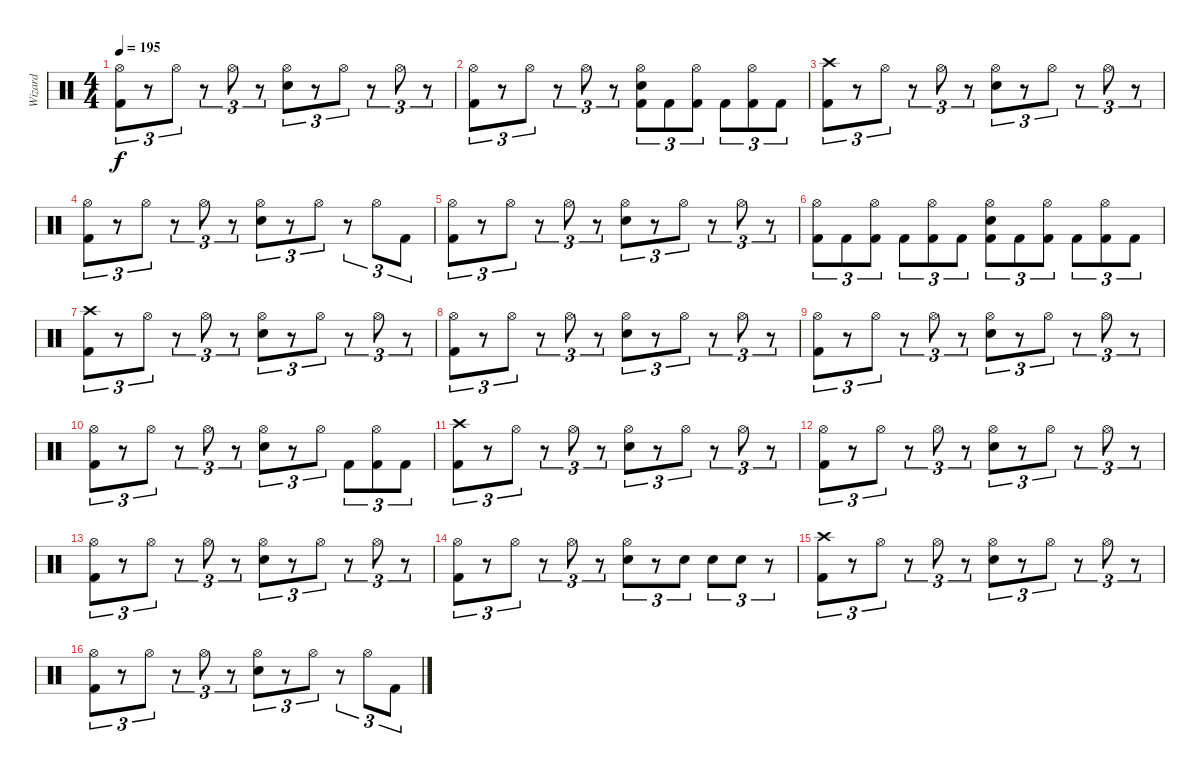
\track ("Wizard" "Wizard") {instrument percussion}
\staff {score}
\articulation defaults
\ts (4 4)
\tempo 195
\clef neutral
\ks c
("Hi-Hat (open)" "Kick (hit) 2").8{tu (3 2) dy f} r.8{tu (3 2)} "Hi-Hat (open)".8{tu (3 2)} r.8{tu (3 2)} "Hi-Hat (open)".8{tu (3 2)} r.8{tu (3 2)} ("Hi-Hat (open)" "Snare (hit) 2").8{tu (3 2)} r.8{tu (3 2)} "Hi-Hat (open)".8{tu (3 2)} r.8{tu (3 2)} "Hi-Hat (open)".8{tu (3 2)} r.8{tu (3 2)} |
("Hi-Hat (open)" "Kick (hit) 2").8{tu (3 2)} r.8{tu (3 2)} "Hi-Hat (open)".8{tu (3 2)} r.8{tu (3 2)} "Hi-Hat (open)".8{tu (3 2)} r.8{tu (3 2)} ("Hi-Hat (open)" "Snare (hit) 2" "Kick (hit) 2").8{tu (3 2)} "Kick (hit) 2".8{tu (3 2)} ("Hi-Hat (open)" "Kick (hit) 2").8{tu (3 2)} "Kick (hit) 2".8{tu (3 2)} ("Hi-Hat (open)" "Kick (hit) 2").8{tu (3 2)} "Kick (hit) 2".8{tu (3 2)} |
("Crash high (hit)" "Kick (hit) 2").8{tu (3 2)} r.8{tu (3 2)} "Hi-Hat (open)".8{tu (3 2)} r.8{tu (3 2)} "Hi-Hat (open)".8{tu (3 2)} r.8{tu (3 2)} ("Hi-Hat (open)" "Snare (hit) 2").8{tu (3 2)} r.8{tu (3 2)} "Hi-Hat (open)".8{tu (3 2)} r.8{tu (3 2)} "Hi-Hat (open)".8{tu (3 2)} r.8{tu (3 2)} |
("Hi-Hat (open)" "Kick (hit) 2").8{tu (3 2)} r.8{tu (3 2)} "Hi-Hat (open)".8{tu (3 2)} r.8{tu (3 2)} "Hi-Hat (open)".8{tu (3 2)} r.8{tu (3 2)} ("Hi-Hat (open)" "Snare (hit) 2").8{tu (3 2)} r.8{tu (3 2)} "Hi-Hat (open)".8{tu (3 2)} r.8{tu (3 2)} "Hi-Hat (open)".8{tu (3 2)} "Kick (hit) 2".8{tu (3 2)} |
("Hi-Hat (open)" "Kick (hit) 2").8{tu (3 2)} r.8{tu (3 2)} "Hi-Hat (open)".8{tu (3 2)} r.8{tu (3 2)} "Hi-Hat (open)".8{tu (3 2)} r.8{tu (3 2)} ("Hi-Hat (open)" "Snare (hit) 2").8{tu (3 2)} r.8{tu (3 2)} "Hi-Hat (open)".8{tu (3 2)} r.8{tu (3 2)} "Hi-Hat (open)".8{tu (3 2)} r.8{tu (3 2)} |
("Hi-Hat (open)" "Kick (hit) 2").8{tu (3 2)} "Kick (hit) 2".8{tu (3 2)} ("Hi-Hat (open)" "Kick (hit) 2").8{tu (3 2)} "Kick (hit) 2".8{tu (3 2)} ("Hi-Hat (open)" "Kick (hit) 2").8{tu (3 2)} "Kick (hit) 2".8{tu (3 2)} ("Hi-Hat (open)" "Snare (hit) 2" "Kick (hit) 2").8{tu (3 2)} "Kick (hit) 2".8{tu (3 2)} ("Hi-Hat (open)" "Kick (hit) 2").8{tu (3 2)} "Kick (hit) 2".8{tu (3 2)} ("Hi-Hat (open)" "Kick (hit) 2").8{tu (3 2)} "Kick (hit) 2".8{tu (3 2)} |
("Crash high (hit)" "Kick (hit) 2").8{tu (3 2)} r.8{tu (3 2)} "Hi-Hat (open)".8{tu (3 2)} r.8{tu (3 2)} "Hi-Hat (open)".8{tu (3 2)} r.8{tu (3 2)} ("Hi-Hat (open)" "Snare (hit) 2").8{tu (3 2)} r.8{tu (3 2)} "Hi-Hat (open)".8{tu (3 2)} r.8{tu (3 2)} "Hi-Hat (open)".8{tu (3 2)} r.8{tu (3 2)} |
("Hi-Hat (open)" "Kick (hit) 2").8{tu (3 2)} r.8{tu (3 2)} "Hi-Hat (open)".8{tu (3 2)} r.8{tu (3 2)} "Hi-Hat (open)".8{tu (3 2)} r.8{tu (3 2)} ("Hi-Hat (open)" "Snare (hit) 2").8{tu (3 2)} r.8{tu (3 2)} "Hi-Hat (open)".8{tu (3 2)} r.8{tu (3 2)} "Hi-Hat (open)".8{tu (3 2)} r.8{tu (3 2)} |
("Hi-Hat (open)" "Kick (hit) 2").8{tu (3 2)} r.8{tu (3 2)} "Hi-Hat (open)".8{tu (3 2)} r.8{tu (3 2)} "Hi-Hat (open)".8{tu (3 2)} r.8{tu (3 2)} ("Hi-Hat (open)" "Snare (hit) 2").8{tu (3 2)} r.8{tu (3 2)} "Hi-Hat (open)".8{tu (3 2)} r.8{tu (3 2)} "Hi-Hat (open)".8{tu (3 2)} r.8{tu (3 2)} |
("Hi-Hat (open)" "Kick (hit) 2").8{tu (3 2)} r.8{tu (3 2)} "Hi-Hat (open)".8{tu (3 2)} r.8{tu (3 2)} "Hi-Hat (open)".8{tu (3 2)} r.8{tu (3 2)} ("Hi-Hat (open)" "Snare (hit) 2").8{tu (3 2)} r.8{tu (3 2)} "Hi-Hat (open)".8{tu (3 2)} "Kick (hit) 2".8{tu (3 2)} ("Hi-Hat (open)" "Kick (hit) 2").8{tu (3 2)} "Kick (hit) 2".8{tu (3 2)} |
("Crash high (hit)" "Kick (hit) 2").8{tu (3 2)} r.8{tu (3 2)} "Hi-Hat (open)".8{tu (3 2)} r.8{tu (3 2)} "Hi-Hat (open)".8{tu (3 2)} r.8{tu (3 2)} ("Hi-Hat (open)" "Snare (hit) 2").8{tu (3 2)} r.8{tu (3 2)} "Hi-Hat (open)".8{tu (3 2)} r.8{tu (3 2)} "Hi-Hat (open)".8{tu (3 2)} r.8{tu (3 2)} |
("Hi-Hat (open)" "Kick (hit) 2").8{tu (3 2)} r.8{tu (3 2)} "Hi-Hat (open)".8{tu (3 2)} r.8{tu (3 2)} "Hi-Hat (open)".8{tu (3 2)} r.8{tu (3 2)} ("Hi-Hat (open)" "Snare (hit) 2").8{tu (3 2)} r.8{tu (3 2)} "Hi-Hat (open)".8{tu (3 2)} r.8{tu (3 2)} "Hi-Hat (open)".8{tu (3 2)} r.8{tu (3 2)} |
("Hi-Hat (open)" "Kick (hit) 2").8{tu (3 2)} r.8{tu (3 2)} "Hi-Hat (open)".8{tu (3 2)} r.8{tu (3 2)} "Hi-Hat (open)".8{tu (3 2)} r.8{tu (3 2)} ("Hi-Hat (open)" "Snare (hit) 2").8{tu (3 2)} r.8{tu (3 2)} "Hi-Hat (open)".8{tu (3 2)} r.8{tu (3 2)} "Hi-Hat (open)".8{tu (3 2)} r.8{tu (3 2)} |
("Hi-Hat (open)" "Kick (hit) 2").8{tu (3 2)} r.8{tu (3 2)} "Hi-Hat (open)".8{tu (3 2)} r.8{tu (3 2)} "Hi-Hat (open)".8{tu (3 2)} r.8{tu (3 2)} ("Hi-Hat (open)" "Snare (hit) 2").8{tu (3 2)} r.8{tu (3 2)} "Snare (hit) 2".8{tu (3 2)} "Snare (hit) 2".8{tu (3 2)} "Snare (hit) 2".8{tu (3 2)} r.8{tu (3 2)} |
("Crash high (hit)" "Kick (hit) 2").8{tu (3 2)} r.8{tu (3 2)} "Hi-Hat (open)".8{tu (3 2)} r.8{tu (3 2)} "Hi-Hat (open)".8{tu (3 2)} r.8{tu (3 2)} ("Hi-Hat (open)" "Snare (hit) 2").8{tu (3 2)} r.8{tu (3 2)} "Hi-Hat (open)".8{tu (3 2)} r.8{tu (3 2)} "Hi-Hat (open)".8{tu (3 2)} r.8{tu (3 2)} |
("Hi-Hat (open)" "Kick (hit) 2").8{tu (3 2)} r.8{tu (3 2)} "Hi-Hat (open)".8{tu (3 2)} r.8{tu (3 2)} "Hi-Hat (open)".8{tu (3 2)} r.8{tu (3 2)} ("Hi-Hat (open)" "Snare (hit) 2").8{tu (3 2)} r.8{tu (3 2)} "Hi-Hat (open)".8{tu (3 2)} r.8{tu (3 2)} "Hi-Hat (open)".8{tu (3 2)} "Kick (hit) 2".8{tu (3 2)}
